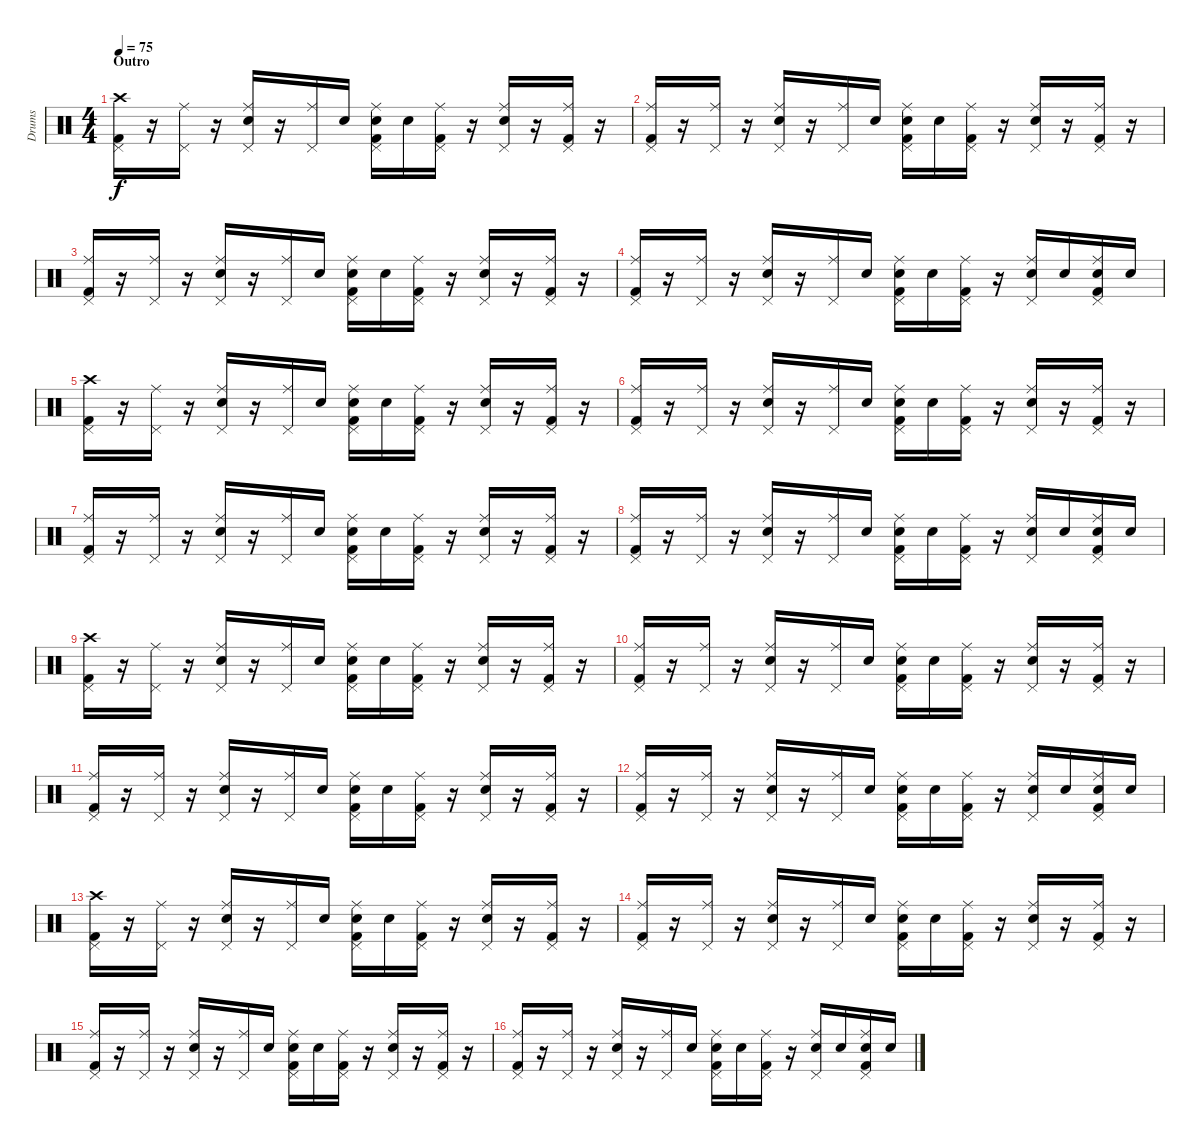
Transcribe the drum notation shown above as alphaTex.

\track ("Drums" "Drums") {instrument percussion}
\staff {score}
\articulation defaults
\ts (4 4)
\section ("" "Outro")
\tempo 75
\clef neutral
\ks c
("Crash high (hit)" "Kick (hit) 2" "Pedal Hi-Hat (hit)").16{dy f} r.16 ("Ride (middle)" "Pedal Hi-Hat (hit)").16 r.16 ("Ride (middle)" "Electric Snare (hit)" "Pedal Hi-Hat (hit)").16 r.16 ("Ride (middle)" "Pedal Hi-Hat (hit)").16 "Snare (hit) 2".16 ("Ride (middle)" "Electric Snare (hit)" "Kick (hit) 2" "Pedal Hi-Hat (hit)").16 "Electric Snare (hit)".16 ("Ride (middle)" "Kick (hit) 2" "Pedal Hi-Hat (hit)").16 r.16 ("Ride (middle)" "Electric Snare (hit)" "Pedal Hi-Hat (hit)").16 r.16 ("Ride (middle)" "Kick (hit) 2" "Pedal Hi-Hat (hit)").16 r.16 |
("Ride (middle)" "Kick (hit) 2" "Pedal Hi-Hat (hit)").16 r.16 ("Ride (middle)" "Pedal Hi-Hat (hit)").16 r.16 ("Ride (middle)" "Electric Snare (hit)" "Pedal Hi-Hat (hit)").16 r.16 ("Ride (middle)" "Pedal Hi-Hat (hit)").16 "Snare (hit) 2".16 ("Ride (middle)" "Electric Snare (hit)" "Kick (hit) 2" "Pedal Hi-Hat (hit)").16 "Electric Snare (hit)".16 ("Ride (middle)" "Kick (hit) 2" "Pedal Hi-Hat (hit)").16 r.16 ("Ride (middle)" "Electric Snare (hit)" "Pedal Hi-Hat (hit)").16 r.16 ("Ride (middle)" "Kick (hit) 2" "Pedal Hi-Hat (hit)").16 r.16 |
("Ride (middle)" "Kick (hit) 2" "Pedal Hi-Hat (hit)").16 r.16 ("Ride (middle)" "Pedal Hi-Hat (hit)").16 r.16 ("Ride (middle)" "Electric Snare (hit)" "Pedal Hi-Hat (hit)").16 r.16 ("Ride (middle)" "Pedal Hi-Hat (hit)").16 "Snare (hit) 2".16 ("Ride (middle)" "Electric Snare (hit)" "Kick (hit) 2" "Pedal Hi-Hat (hit)").16 "Electric Snare (hit)".16 ("Ride (middle)" "Kick (hit) 2" "Pedal Hi-Hat (hit)").16 r.16 ("Ride (middle)" "Electric Snare (hit)" "Pedal Hi-Hat (hit)").16 r.16 ("Ride (middle)" "Kick (hit) 2" "Pedal Hi-Hat (hit)").16 r.16 |
("Ride (middle)" "Kick (hit) 2" "Pedal Hi-Hat (hit)").16 r.16 ("Ride (middle)" "Pedal Hi-Hat (hit)").16 r.16 ("Ride (middle)" "Electric Snare (hit)" "Pedal Hi-Hat (hit)").16 r.16 ("Ride (middle)" "Pedal Hi-Hat (hit)").16 "Snare (hit) 2".16 ("Ride (middle)" "Electric Snare (hit)" "Kick (hit) 2" "Pedal Hi-Hat (hit)").16 "Electric Snare (hit)".16 ("Ride (middle)" "Kick (hit) 2" "Pedal Hi-Hat (hit)").16 r.16 ("Ride (middle)" "Electric Snare (hit)" "Pedal Hi-Hat (hit)").16 "Electric Snare (hit)".16 ("Ride (middle)" "Electric Snare (hit)" "Kick (hit) 2" "Pedal Hi-Hat (hit)").16 "Electric Snare (hit)".16 |
("Crash high (hit)" "Kick (hit) 2" "Pedal Hi-Hat (hit)").16 r.16 ("Ride (middle)" "Pedal Hi-Hat (hit)").16 r.16 ("Ride (middle)" "Electric Snare (hit)" "Pedal Hi-Hat (hit)").16 r.16 ("Ride (middle)" "Pedal Hi-Hat (hit)").16 "Snare (hit) 2".16 ("Ride (middle)" "Electric Snare (hit)" "Kick (hit) 2" "Pedal Hi-Hat (hit)").16 "Electric Snare (hit)".16 ("Ride (middle)" "Kick (hit) 2" "Pedal Hi-Hat (hit)").16 r.16 ("Ride (middle)" "Electric Snare (hit)" "Pedal Hi-Hat (hit)").16 r.16 ("Ride (middle)" "Kick (hit) 2" "Pedal Hi-Hat (hit)").16 r.16 |
("Ride (middle)" "Kick (hit) 2" "Pedal Hi-Hat (hit)").16 r.16 ("Ride (middle)" "Pedal Hi-Hat (hit)").16 r.16 ("Ride (middle)" "Electric Snare (hit)" "Pedal Hi-Hat (hit)").16 r.16 ("Ride (middle)" "Pedal Hi-Hat (hit)").16 "Snare (hit) 2".16 ("Ride (middle)" "Electric Snare (hit)" "Kick (hit) 2" "Pedal Hi-Hat (hit)").16 "Electric Snare (hit)".16 ("Ride (middle)" "Kick (hit) 2" "Pedal Hi-Hat (hit)").16 r.16 ("Ride (middle)" "Electric Snare (hit)" "Pedal Hi-Hat (hit)").16 r.16 ("Ride (middle)" "Kick (hit) 2" "Pedal Hi-Hat (hit)").16 r.16 |
("Ride (middle)" "Kick (hit) 2" "Pedal Hi-Hat (hit)").16 r.16 ("Ride (middle)" "Pedal Hi-Hat (hit)").16 r.16 ("Ride (middle)" "Electric Snare (hit)" "Pedal Hi-Hat (hit)").16 r.16 ("Ride (middle)" "Pedal Hi-Hat (hit)").16 "Snare (hit) 2".16 ("Ride (middle)" "Electric Snare (hit)" "Kick (hit) 2" "Pedal Hi-Hat (hit)").16 "Electric Snare (hit)".16 ("Ride (middle)" "Kick (hit) 2" "Pedal Hi-Hat (hit)").16 r.16 ("Ride (middle)" "Electric Snare (hit)" "Pedal Hi-Hat (hit)").16 r.16 ("Ride (middle)" "Kick (hit) 2" "Pedal Hi-Hat (hit)").16 r.16 |
("Ride (middle)" "Kick (hit) 2" "Pedal Hi-Hat (hit)").16 r.16 ("Ride (middle)" "Pedal Hi-Hat (hit)").16 r.16 ("Ride (middle)" "Electric Snare (hit)" "Pedal Hi-Hat (hit)").16 r.16 ("Ride (middle)" "Pedal Hi-Hat (hit)").16 "Snare (hit) 2".16 ("Ride (middle)" "Electric Snare (hit)" "Kick (hit) 2" "Pedal Hi-Hat (hit)").16 "Electric Snare (hit)".16 ("Ride (middle)" "Kick (hit) 2" "Pedal Hi-Hat (hit)").16 r.16 ("Ride (middle)" "Electric Snare (hit)" "Pedal Hi-Hat (hit)").16 "Electric Snare (hit)".16 ("Ride (middle)" "Electric Snare (hit)" "Kick (hit) 2" "Pedal Hi-Hat (hit)").16 "Electric Snare (hit)".16 |
("Crash high (hit)" "Kick (hit) 2" "Pedal Hi-Hat (hit)").16 r.16 ("Ride (middle)" "Pedal Hi-Hat (hit)").16 r.16 ("Ride (middle)" "Electric Snare (hit)" "Pedal Hi-Hat (hit)").16 r.16 ("Ride (middle)" "Pedal Hi-Hat (hit)").16 "Snare (hit) 2".16 ("Ride (middle)" "Electric Snare (hit)" "Kick (hit) 2" "Pedal Hi-Hat (hit)").16 "Electric Snare (hit)".16 ("Ride (middle)" "Kick (hit) 2" "Pedal Hi-Hat (hit)").16 r.16 ("Ride (middle)" "Electric Snare (hit)" "Pedal Hi-Hat (hit)").16 r.16 ("Ride (middle)" "Kick (hit) 2" "Pedal Hi-Hat (hit)").16 r.16 |
("Ride (middle)" "Kick (hit) 2" "Pedal Hi-Hat (hit)").16 r.16 ("Ride (middle)" "Pedal Hi-Hat (hit)").16 r.16 ("Ride (middle)" "Electric Snare (hit)" "Pedal Hi-Hat (hit)").16 r.16 ("Ride (middle)" "Pedal Hi-Hat (hit)").16 "Snare (hit) 2".16 ("Ride (middle)" "Electric Snare (hit)" "Kick (hit) 2" "Pedal Hi-Hat (hit)").16 "Electric Snare (hit)".16 ("Ride (middle)" "Kick (hit) 2" "Pedal Hi-Hat (hit)").16 r.16 ("Ride (middle)" "Electric Snare (hit)" "Pedal Hi-Hat (hit)").16 r.16 ("Ride (middle)" "Kick (hit) 2" "Pedal Hi-Hat (hit)").16 r.16 |
("Ride (middle)" "Kick (hit) 2" "Pedal Hi-Hat (hit)").16 r.16 ("Ride (middle)" "Pedal Hi-Hat (hit)").16 r.16 ("Ride (middle)" "Electric Snare (hit)" "Pedal Hi-Hat (hit)").16 r.16 ("Ride (middle)" "Pedal Hi-Hat (hit)").16 "Snare (hit) 2".16 ("Ride (middle)" "Electric Snare (hit)" "Kick (hit) 2" "Pedal Hi-Hat (hit)").16 "Electric Snare (hit)".16 ("Ride (middle)" "Kick (hit) 2" "Pedal Hi-Hat (hit)").16 r.16 ("Ride (middle)" "Electric Snare (hit)" "Pedal Hi-Hat (hit)").16 r.16 ("Ride (middle)" "Kick (hit) 2" "Pedal Hi-Hat (hit)").16 r.16 |
("Ride (middle)" "Kick (hit) 2" "Pedal Hi-Hat (hit)").16 r.16 ("Ride (middle)" "Pedal Hi-Hat (hit)").16 r.16 ("Ride (middle)" "Electric Snare (hit)" "Pedal Hi-Hat (hit)").16 r.16 ("Ride (middle)" "Pedal Hi-Hat (hit)").16 "Snare (hit) 2".16 ("Ride (middle)" "Electric Snare (hit)" "Kick (hit) 2" "Pedal Hi-Hat (hit)").16 "Electric Snare (hit)".16 ("Ride (middle)" "Kick (hit) 2" "Pedal Hi-Hat (hit)").16 r.16 ("Ride (middle)" "Electric Snare (hit)" "Pedal Hi-Hat (hit)").16 "Electric Snare (hit)".16 ("Ride (middle)" "Electric Snare (hit)" "Kick (hit) 2" "Pedal Hi-Hat (hit)").16 "Electric Snare (hit)".16 |
("Crash high (hit)" "Kick (hit) 2" "Pedal Hi-Hat (hit)").16 r.16 ("Ride (middle)" "Pedal Hi-Hat (hit)").16 r.16 ("Ride (middle)" "Electric Snare (hit)" "Pedal Hi-Hat (hit)").16 r.16 ("Ride (middle)" "Pedal Hi-Hat (hit)").16 "Snare (hit) 2".16 ("Ride (middle)" "Electric Snare (hit)" "Kick (hit) 2" "Pedal Hi-Hat (hit)").16 "Electric Snare (hit)".16 ("Ride (middle)" "Kick (hit) 2" "Pedal Hi-Hat (hit)").16 r.16 ("Ride (middle)" "Electric Snare (hit)" "Pedal Hi-Hat (hit)").16 r.16 ("Ride (middle)" "Kick (hit) 2" "Pedal Hi-Hat (hit)").16 r.16 |
("Ride (middle)" "Kick (hit) 2" "Pedal Hi-Hat (hit)").16 r.16 ("Ride (middle)" "Pedal Hi-Hat (hit)").16 r.16 ("Ride (middle)" "Electric Snare (hit)" "Pedal Hi-Hat (hit)").16 r.16 ("Ride (middle)" "Pedal Hi-Hat (hit)").16 "Snare (hit) 2".16 ("Ride (middle)" "Electric Snare (hit)" "Kick (hit) 2" "Pedal Hi-Hat (hit)").16 "Electric Snare (hit)".16 ("Ride (middle)" "Kick (hit) 2" "Pedal Hi-Hat (hit)").16 r.16 ("Ride (middle)" "Electric Snare (hit)" "Pedal Hi-Hat (hit)").16 r.16 ("Ride (middle)" "Kick (hit) 2" "Pedal Hi-Hat (hit)").16 r.16 |
("Ride (middle)" "Kick (hit) 2" "Pedal Hi-Hat (hit)").16 r.16 ("Ride (middle)" "Pedal Hi-Hat (hit)").16 r.16 ("Ride (middle)" "Electric Snare (hit)" "Pedal Hi-Hat (hit)").16 r.16 ("Ride (middle)" "Pedal Hi-Hat (hit)").16 "Snare (hit) 2".16 ("Ride (middle)" "Electric Snare (hit)" "Kick (hit) 2" "Pedal Hi-Hat (hit)").16 "Electric Snare (hit)".16 ("Ride (middle)" "Kick (hit) 2" "Pedal Hi-Hat (hit)").16 r.16 ("Ride (middle)" "Electric Snare (hit)" "Pedal Hi-Hat (hit)").16 r.16 ("Ride (middle)" "Kick (hit) 2" "Pedal Hi-Hat (hit)").16 r.16 |
("Ride (middle)" "Kick (hit) 2" "Pedal Hi-Hat (hit)").16 r.16 ("Ride (middle)" "Pedal Hi-Hat (hit)").16 r.16 ("Ride (middle)" "Electric Snare (hit)" "Pedal Hi-Hat (hit)").16 r.16 ("Ride (middle)" "Pedal Hi-Hat (hit)").16 "Snare (hit) 2".16 ("Ride (middle)" "Electric Snare (hit)" "Kick (hit) 2" "Pedal Hi-Hat (hit)").16 "Electric Snare (hit)".16 ("Ride (middle)" "Kick (hit) 2" "Pedal Hi-Hat (hit)").16 r.16 ("Ride (middle)" "Electric Snare (hit)" "Pedal Hi-Hat (hit)").16 "Electric Snare (hit)".16 ("Ride (middle)" "Electric Snare (hit)" "Kick (hit) 2" "Pedal Hi-Hat (hit)").16 "Electric Snare (hit)".16
